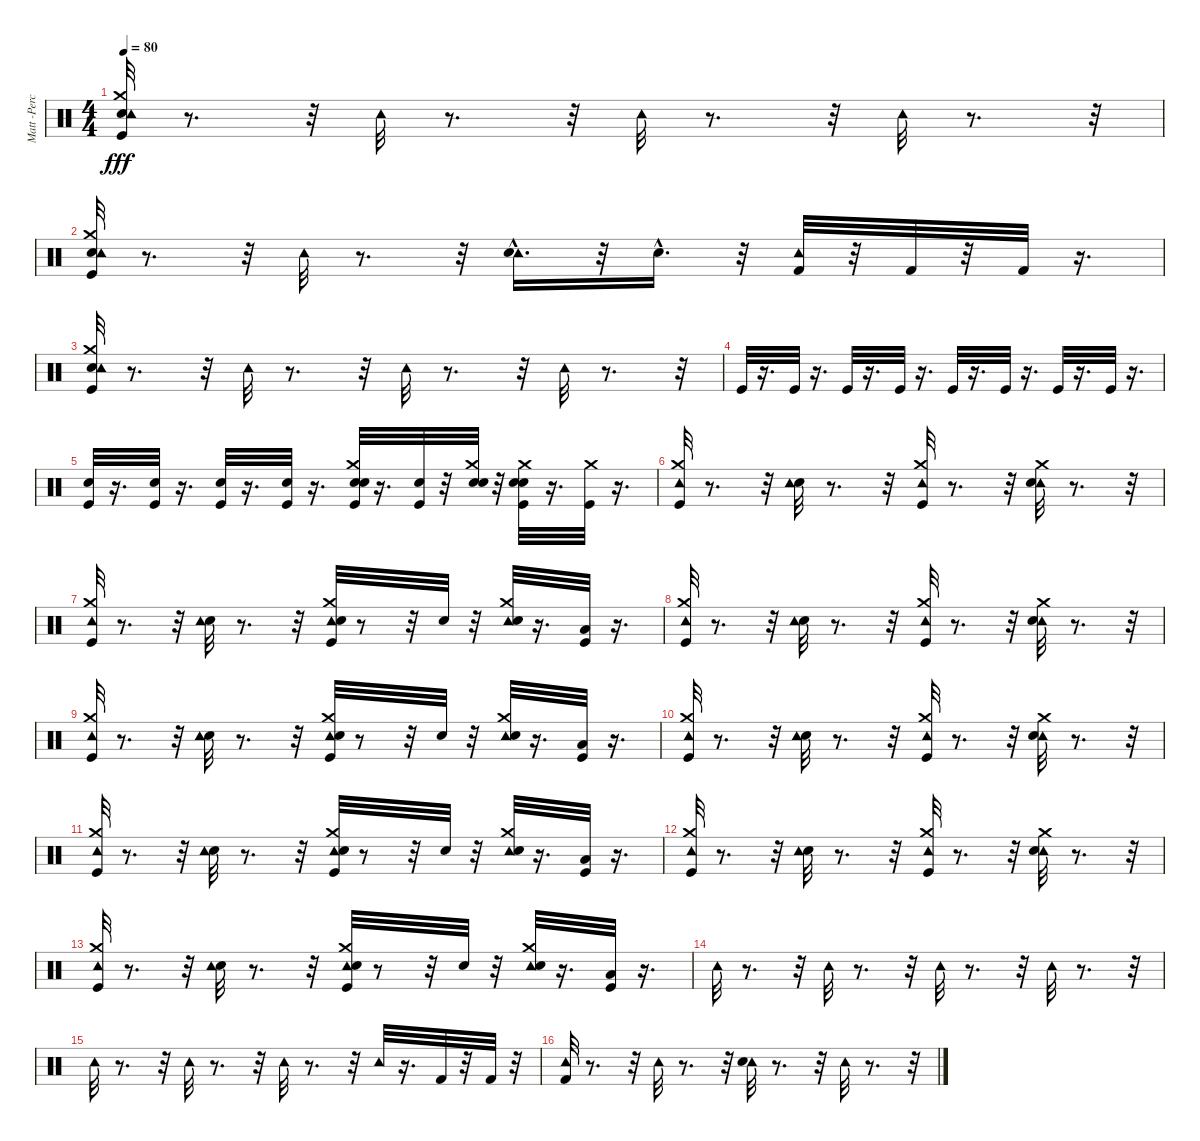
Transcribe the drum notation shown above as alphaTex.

\track ("Matt -Percussion-" "Matt -Perc") {instrument percussion}
\staff {score}
\articulation defaults
\ts (4 4)
\tempo 80
\clef neutral
\ks c
("Kick (hit)" "Snare (hit) 2" "Crash medium (hit)" "Tambourine (hit)").32{dy fff} r.8{d} r.32 "Tambourine (hit)".32 r.8{d} r.32 "Tambourine (hit)".32 r.8{d} r.32 "Tambourine (hit)".32 r.8{d} r.32 |
("Kick (hit)" "Snare (hit) 2" "Crash medium (hit)" "Tambourine (hit)").32 r.8{d} r.32 "Tambourine (hit)".32 r.8{d} r.32 ("Tambourine (hit)" "Snare (hit) 2"{hac}).16{d} r.32 "Snare (hit) 2"{hac}.16{d} r.32 ("Tambourine (hit)" "Kick (hit) 2").32 r.32 "Kick (hit) 2".32 r.32 "Kick (hit) 2".32 r.16{d} |
("Kick (hit)" "Snare (hit) 2" "Crash medium (hit)" "Tambourine (hit)").32 r.8{d} r.32 "Tambourine (hit)".32 r.8{d} r.32 "Tambourine (hit)".32 r.8{d} r.32 "Tambourine (hit)".32 r.8{d} r.32 |
"Kick (hit)".32 r.16{d} "Kick (hit)".32 r.16{d} "Kick (hit)".32 r.16{d} "Kick (hit)".32 r.16{d} "Kick (hit)".32 r.16{d} "Kick (hit)".32 r.16{d} "Kick (hit)".32 r.16{d} "Kick (hit)".32 r.16{d} |
("Kick (hit)" "Snare (hit) 2").32 r.16{d} ("Kick (hit)" "Snare (hit) 2").32 r.16{d} ("Kick (hit)" "Snare (hit) 2").32 r.16{d} ("Kick (hit)" "Snare (hit) 2").32 r.16{d} ("Kick (hit)" "Snare (hit) 2" "Electric Snare (hit)" "Crash medium (hit)").32 r.16{d} ("Kick (hit)" "Snare (hit) 2").32 r.32 ("Snare (hit) 2" "Electric Snare (hit)" "Crash medium (hit)").32 r.32 ("Kick (hit)" "Snare (hit) 2" "Electric Snare (hit)" "Crash medium (hit)").32 r.16{d} ("Kick (hit)" "Crash medium (hit)").32 r.16{d} |
("Kick (hit)" "Crash medium (hit)" "Tambourine (hit)").32 r.8{d} r.32 ("Snare (hit) 2" "Tambourine (hit)").32 r.8{d} r.32 ("Tambourine (hit)" "Crash medium (hit)" "Kick (hit)").32 r.8{d} r.32 ("Tambourine (hit)" "Crash medium (hit)" "Snare (hit) 2").32 r.8{d} r.32 |
("Kick (hit)" "Crash medium (hit)" "Tambourine (hit)").32 r.8{d} r.32 ("Snare (hit) 2" "Tambourine (hit)").32 r.8{d} r.32 ("Tambourine (hit)" "Crash medium (hit)" "Kick (hit)" "Snare (hit) 2").32 r.8 r.32 "Snare (hit) 2".32 r.32 ("Tambourine (hit)" "Crash medium (hit)" "Snare (hit) 2").32 r.16{d} ("Kick (hit)" "Low Floor Tom (hit)").32 r.16{d} |
("Kick (hit)" "Crash medium (hit)" "Tambourine (hit)").32 r.8{d} r.32 ("Snare (hit) 2" "Tambourine (hit)").32 r.8{d} r.32 ("Tambourine (hit)" "Crash medium (hit)" "Kick (hit)").32 r.8{d} r.32 ("Tambourine (hit)" "Crash medium (hit)" "Snare (hit) 2").32 r.8{d} r.32 |
("Kick (hit)" "Crash medium (hit)" "Tambourine (hit)").32 r.8{d} r.32 ("Snare (hit) 2" "Tambourine (hit)").32 r.8{d} r.32 ("Tambourine (hit)" "Crash medium (hit)" "Kick (hit)" "Snare (hit) 2").32 r.8 r.32 "Snare (hit) 2".32 r.32 ("Tambourine (hit)" "Crash medium (hit)" "Snare (hit) 2").32 r.16{d} ("Kick (hit)" "Low Floor Tom (hit)").32 r.16{d} |
("Kick (hit)" "Crash medium (hit)" "Tambourine (hit)").32 r.8{d} r.32 ("Snare (hit) 2" "Tambourine (hit)").32 r.8{d} r.32 ("Tambourine (hit)" "Crash medium (hit)" "Kick (hit)").32 r.8{d} r.32 ("Tambourine (hit)" "Crash medium (hit)" "Snare (hit) 2").32 r.8{d} r.32 |
("Kick (hit)" "Crash medium (hit)" "Tambourine (hit)").32 r.8{d} r.32 ("Snare (hit) 2" "Tambourine (hit)").32 r.8{d} r.32 ("Tambourine (hit)" "Crash medium (hit)" "Kick (hit)" "Snare (hit) 2").32 r.8 r.32 "Snare (hit) 2".32 r.32 ("Tambourine (hit)" "Crash medium (hit)" "Snare (hit) 2").32 r.16{d} ("Kick (hit)" "Low Floor Tom (hit)").32 r.16{d} |
("Kick (hit)" "Crash medium (hit)" "Tambourine (hit)").32 r.8{d} r.32 ("Snare (hit) 2" "Tambourine (hit)").32 r.8{d} r.32 ("Tambourine (hit)" "Crash medium (hit)" "Kick (hit)").32 r.8{d} r.32 ("Tambourine (hit)" "Crash medium (hit)" "Snare (hit) 2").32 r.8{d} r.32 |
("Kick (hit)" "Crash medium (hit)" "Tambourine (hit)").32 r.8{d} r.32 ("Snare (hit) 2" "Tambourine (hit)").32 r.8{d} r.32 ("Tambourine (hit)" "Crash medium (hit)" "Kick (hit)" "Snare (hit) 2").32 r.8 r.32 "Snare (hit) 2".32 r.32 ("Tambourine (hit)" "Crash medium (hit)" "Snare (hit) 2").32 r.16{d} ("Kick (hit)" "Low Floor Tom (hit)").32 r.16{d} |
"Tambourine (hit)".32 r.8{d} r.32 "Tambourine (hit)".32 r.8{d} r.32 "Tambourine (hit)".32 r.8{d} r.32 "Tambourine (hit)".32 r.8{d} r.32 |
"Tambourine (hit)".32 r.8{d} r.32 "Tambourine (hit)".32 r.8{d} r.32 "Tambourine (hit)".32 r.8{d} r.32 "Tambourine (hit)".32 r.16{d} "Kick (hit) 2".32 r.32 "Kick (hit) 2".32 r.32 |
("Tambourine (hit)" "Kick (hit) 2").32 r.8{d} r.32 "Tambourine (hit)".32 r.8{d} r.32 ("Tambourine (hit)" "Snare (hit) 2").32 r.8{d} r.32 "Tambourine (hit)".32 r.8{d} r.32
